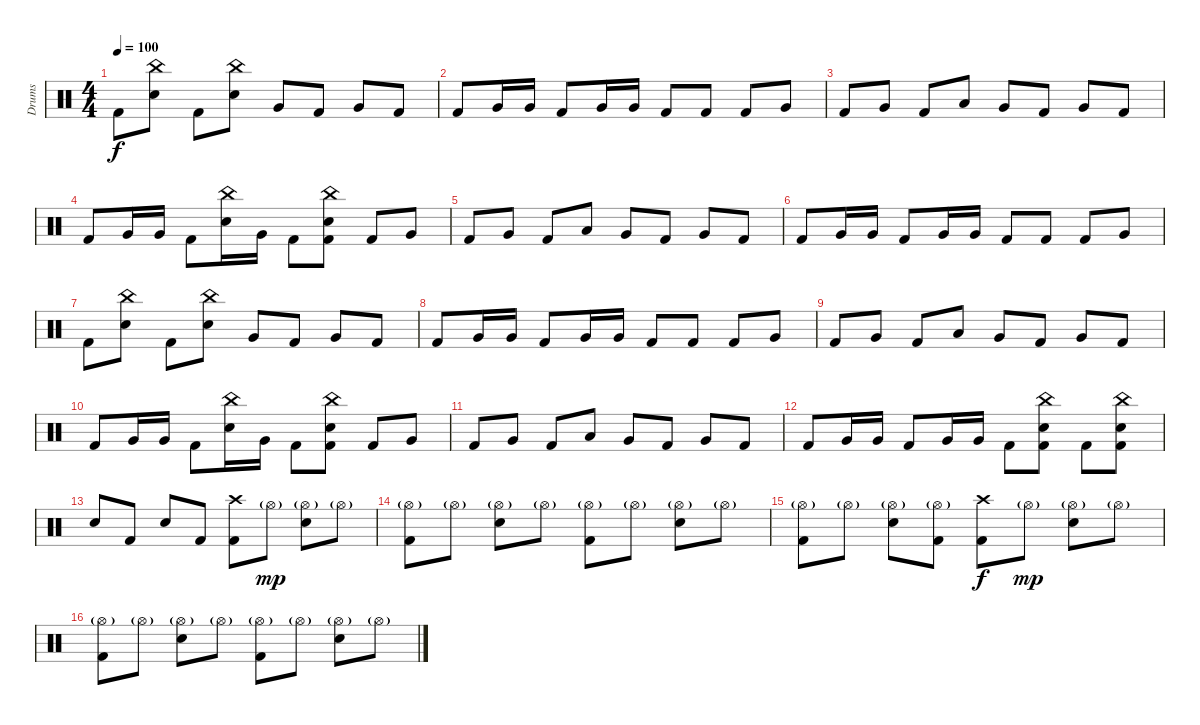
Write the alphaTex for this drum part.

\track ("Drums" "Drums") {instrument percussion}
\staff {score}
\articulation defaults
\ts (4 4)
\tempo 100
\clef neutral
\ks c "Kick (hit) 2".8{dy f}
("Snare (hit) 2" "China (hit)").8 "Kick (hit) 2".8 ("Snare (hit) 2" "China (hit)").8 "Very Low Tom (hit)".8 "Kick (hit) 2".8 "Very Low Tom (hit)".8 "Kick (hit) 2".8 |
"Kick (hit) 2".8 "Very Low Tom (hit)".16 "Very Low Tom (hit)".16 "Kick (hit) 2".8 "Very Low Tom (hit)".16 "Very Low Tom (hit)".16 "Kick (hit) 2".8 "Kick (hit) 2".8 "Kick (hit) 2".8 "Very Low Tom (hit)".8 |
"Kick (hit) 2".8 "Very Low Tom (hit)".8 "Kick (hit) 2".8 "Low Tom (hit)".8 "Very Low Tom (hit)".8 "Kick (hit) 2".8 "Very Low Tom (hit)".8 "Kick (hit) 2".8 |
"Kick (hit) 2".8 "Very Low Tom (hit)".16 "Very Low Tom (hit)".16 "Kick (hit) 2".8 ("Snare (hit) 2" "China (hit)").16 "Very Low Tom (hit)".16 "Kick (hit) 2".8 ("Snare (hit) 2" "China (hit)" "Kick (hit) 2").8 "Kick (hit) 2".8 "Very Low Tom (hit)".8 |
"Kick (hit) 2".8 "Very Low Tom (hit)".8 "Kick (hit) 2".8 "Low Tom (hit)".8 "Very Low Tom (hit)".8 "Kick (hit) 2".8 "Very Low Tom (hit)".8 "Kick (hit) 2".8 |
"Kick (hit) 2".8 "Very Low Tom (hit)".16 "Very Low Tom (hit)".16 "Kick (hit) 2".8 "Very Low Tom (hit)".16 "Very Low Tom (hit)".16 "Kick (hit) 2".8 "Kick (hit) 2".8 "Kick (hit) 2".8 "Very Low Tom (hit)".8 |
"Kick (hit) 2".8 ("Snare (hit) 2" "China (hit)").8 "Kick (hit) 2".8 ("Snare (hit) 2" "China (hit)").8 "Very Low Tom (hit)".8 "Kick (hit) 2".8 "Very Low Tom (hit)".8 "Kick (hit) 2".8 |
"Kick (hit) 2".8 "Very Low Tom (hit)".16 "Very Low Tom (hit)".16 "Kick (hit) 2".8 "Very Low Tom (hit)".16 "Very Low Tom (hit)".16 "Kick (hit) 2".8 "Kick (hit) 2".8 "Kick (hit) 2".8 "Very Low Tom (hit)".8 |
"Kick (hit) 2".8 "Very Low Tom (hit)".8 "Kick (hit) 2".8 "Low Tom (hit)".8 "Very Low Tom (hit)".8 "Kick (hit) 2".8 "Very Low Tom (hit)".8 "Kick (hit) 2".8 |
"Kick (hit) 2".8 "Very Low Tom (hit)".16 "Very Low Tom (hit)".16 "Kick (hit) 2".8 ("Snare (hit) 2" "China (hit)").16 "Very Low Tom (hit)".16 "Kick (hit) 2".8 ("Snare (hit) 2" "China (hit)" "Kick (hit) 2").8 "Kick (hit) 2".8 "Very Low Tom (hit)".8 |
"Kick (hit) 2".8 "Very Low Tom (hit)".8 "Kick (hit) 2".8 "Low Tom (hit)".8 "Very Low Tom (hit)".8 "Kick (hit) 2".8 "Very Low Tom (hit)".8 "Kick (hit) 2".8 |
"Kick (hit) 2".8 "Very Low Tom (hit)".16 "Very Low Tom (hit)".16 "Kick (hit) 2".8 "Very Low Tom (hit)".16 "Very Low Tom (hit)".16 "Kick (hit) 2".8 ("Snare (hit) 2" "China (hit)" "Kick (hit) 2").8 "Kick (hit) 2".8 ("Snare (hit) 2" "China (hit)" "Kick (hit) 2").8 |
"Snare (hit) 2".8 "Kick (hit) 2".8 "Snare (hit) 2".8 "Kick (hit) 2".8 ("Crash high (hit)" "Kick (hit) 2").8 "Hi-Hat (open)"{g}.8{dy mp} ("Snare (hit) 2" "Hi-Hat (open)"{g}).8 "Hi-Hat (open)"{g}.8 |
("Hi-Hat (open)"{g} "Kick (hit) 2").8 "Hi-Hat (open)"{g}.8 ("Snare (hit) 2" "Hi-Hat (open)"{g}).8 "Hi-Hat (open)"{g}.8 ("Hi-Hat (open)"{g} "Kick (hit) 2").8 "Hi-Hat (open)"{g}.8 ("Snare (hit) 2" "Hi-Hat (open)"{g}).8 "Hi-Hat (open)"{g}.8 |
("Hi-Hat (open)"{g} "Kick (hit) 2").8 "Hi-Hat (open)"{g}.8 ("Snare (hit) 2" "Hi-Hat (open)"{g}).8 ("Hi-Hat (open)"{g} "Kick (hit) 2").8 ("Crash high (hit)" "Kick (hit) 2").8{dy f} "Hi-Hat (open)"{g}.8{dy mp} ("Snare (hit) 2" "Hi-Hat (open)"{g}).8 "Hi-Hat (open)"{g}.8 |
("Hi-Hat (open)"{g} "Kick (hit) 2").8 "Hi-Hat (open)"{g}.8 ("Snare (hit) 2" "Hi-Hat (open)"{g}).8 "Hi-Hat (open)"{g}.8 ("Hi-Hat (open)"{g} "Kick (hit) 2").8 "Hi-Hat (open)"{g}.8 ("Snare (hit) 2" "Hi-Hat (open)"{g}).8 "Hi-Hat (open)"{g}.8
